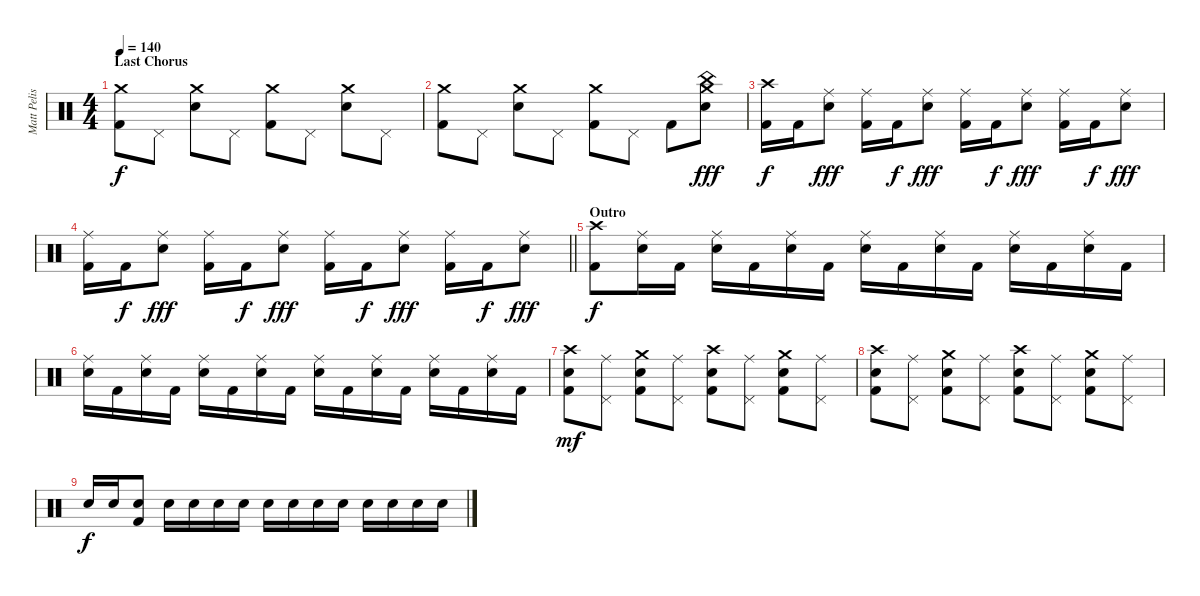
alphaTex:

\track ("Matt Pelissier" "Matt Pelis") {instrument percussion}
\staff {score}
\articulation defaults
\ts (4 4)
\section ("" "Last Chorus")
\tempo 140
\clef neutral
\ks c
("Crash medium (hit)" "Kick (hit) 2").8{dy f} "Pedal Hi-Hat (hit)".8 ("Crash medium (hit)" "Snare (hit) 2").8 "Pedal Hi-Hat (hit)".8 ("Crash medium (hit)" "Kick (hit) 2").8 "Pedal Hi-Hat (hit)".8 ("Crash medium (hit)" "Snare (hit) 2").8 "Pedal Hi-Hat (hit)".8 |
("Crash medium (hit)" "Kick (hit) 2").8 "Pedal Hi-Hat (hit)".8 ("Crash medium (hit)" "Snare (hit) 2").8 "Pedal Hi-Hat (hit)".8 ("Crash medium (hit)" "Kick (hit) 2").8 "Pedal Hi-Hat (hit)".8 "Kick (hit) 2".8 ("Crash medium (hit)" "China (hit)" "Snare (hit) 2").8{dy fff} |
("Crash high (hit)" "Kick (hit) 2").16{dy f} "Kick (hit) 2".16 ("Ride (middle)" "Snare (hit) 2").8{dy fff} ("Ride (middle)" "Kick (hit) 2").16 "Kick (hit) 2".16{dy f} ("Ride (middle)" "Snare (hit) 2").8{dy fff} ("Ride (middle)" "Kick (hit) 2").16 "Kick (hit) 2".16{dy f} ("Ride (middle)" "Snare (hit) 2").8{dy fff} ("Ride (middle)" "Kick (hit) 2").16 "Kick (hit) 2".16{dy f} ("Ride (middle)" "Snare (hit) 2").8{dy fff} |
\barLineRight lightlight
("Ride (middle)" "Kick (hit) 2").16 "Kick (hit) 2".16{dy f} ("Ride (middle)" "Snare (hit) 2").8{dy fff} ("Ride (middle)" "Kick (hit) 2").16 "Kick (hit) 2".16{dy f} ("Ride (middle)" "Snare (hit) 2").8{dy fff} ("Ride (middle)" "Kick (hit) 2").16 "Kick (hit) 2".16{dy f} ("Ride (middle)" "Snare (hit) 2").8{dy fff} ("Ride (middle)" "Kick (hit) 2").16 "Kick (hit) 2".16{dy f} ("Ride (middle)" "Snare (hit) 2").8{dy fff} |
\section ("" "Outro")
("Crash high (hit)" "Kick (hit) 2").8{dy f} ("Ride (middle)" "Snare (hit) 2").16 "Kick (hit) 2".16 ("Ride (middle)" "Snare (hit) 2").16 "Kick (hit) 2".16 ("Ride (middle)" "Snare (hit) 2").16 "Kick (hit) 2".16 ("Ride (middle)" "Snare (hit) 2").16 "Kick (hit) 2".16 ("Ride (middle)" "Snare (hit) 2").16 "Kick (hit) 2".16 ("Ride (middle)" "Snare (hit) 2").16 "Kick (hit) 2".16 ("Ride (middle)" "Snare (hit) 2").16 "Kick (hit) 2".16 |
("Ride (middle)" "Snare (hit) 2").16 "Kick (hit) 2".16 ("Ride (middle)" "Snare (hit) 2").16 "Kick (hit) 2".16 ("Ride (middle)" "Snare (hit) 2").16 "Kick (hit) 2".16 ("Ride (middle)" "Snare (hit) 2").16 "Kick (hit) 2".16 ("Ride (middle)" "Snare (hit) 2").16 "Kick (hit) 2".16 ("Ride (middle)" "Snare (hit) 2").16 "Kick (hit) 2".16 ("Ride (middle)" "Snare (hit) 2").16 "Kick (hit) 2".16 ("Ride (middle)" "Snare (hit) 2").16 "Kick (hit) 2".16 |
("Crash high (hit)" "Snare (hit) 2" "Kick (hit) 2").8{dy mf} ("Ride (middle)" "Pedal Hi-Hat (hit)").8 ("Crash medium (hit)" "Snare (hit) 2" "Kick (hit) 2").8 ("Ride (middle)" "Pedal Hi-Hat (hit)").8 ("Crash high (hit)" "Snare (hit) 2" "Kick (hit) 2").8 ("Ride (middle)" "Pedal Hi-Hat (hit)").8 ("Crash medium (hit)" "Snare (hit) 2" "Kick (hit) 2").8 ("Ride (middle)" "Pedal Hi-Hat (hit)").8 |
("Crash high (hit)" "Snare (hit) 2" "Kick (hit) 2").8 ("Ride (middle)" "Pedal Hi-Hat (hit)").8 ("Crash medium (hit)" "Snare (hit) 2" "Kick (hit) 2").8 ("Ride (middle)" "Pedal Hi-Hat (hit)").8 ("Crash high (hit)" "Snare (hit) 2" "Kick (hit) 2").8 ("Ride (middle)" "Pedal Hi-Hat (hit)").8 ("Crash medium (hit)" "Snare (hit) 2" "Kick (hit) 2").8 ("Ride (middle)" "Pedal Hi-Hat (hit)").8 |
"Snare (hit) 2".16{dy f} "Snare (hit) 2".16 ("Snare (hit) 2" "Kick (hit) 2").8 "Snare (hit)".16 "Snare (hit)".16 "Snare (hit)".16 "Snare (hit)".16 "Snare (hit)".16 "Snare (hit)".16 "Snare (hit)".16 "Snare (hit)".16 "Snare (hit)".16 "Snare (hit)".16 "Snare (hit)".16 "Snare (hit)".16
